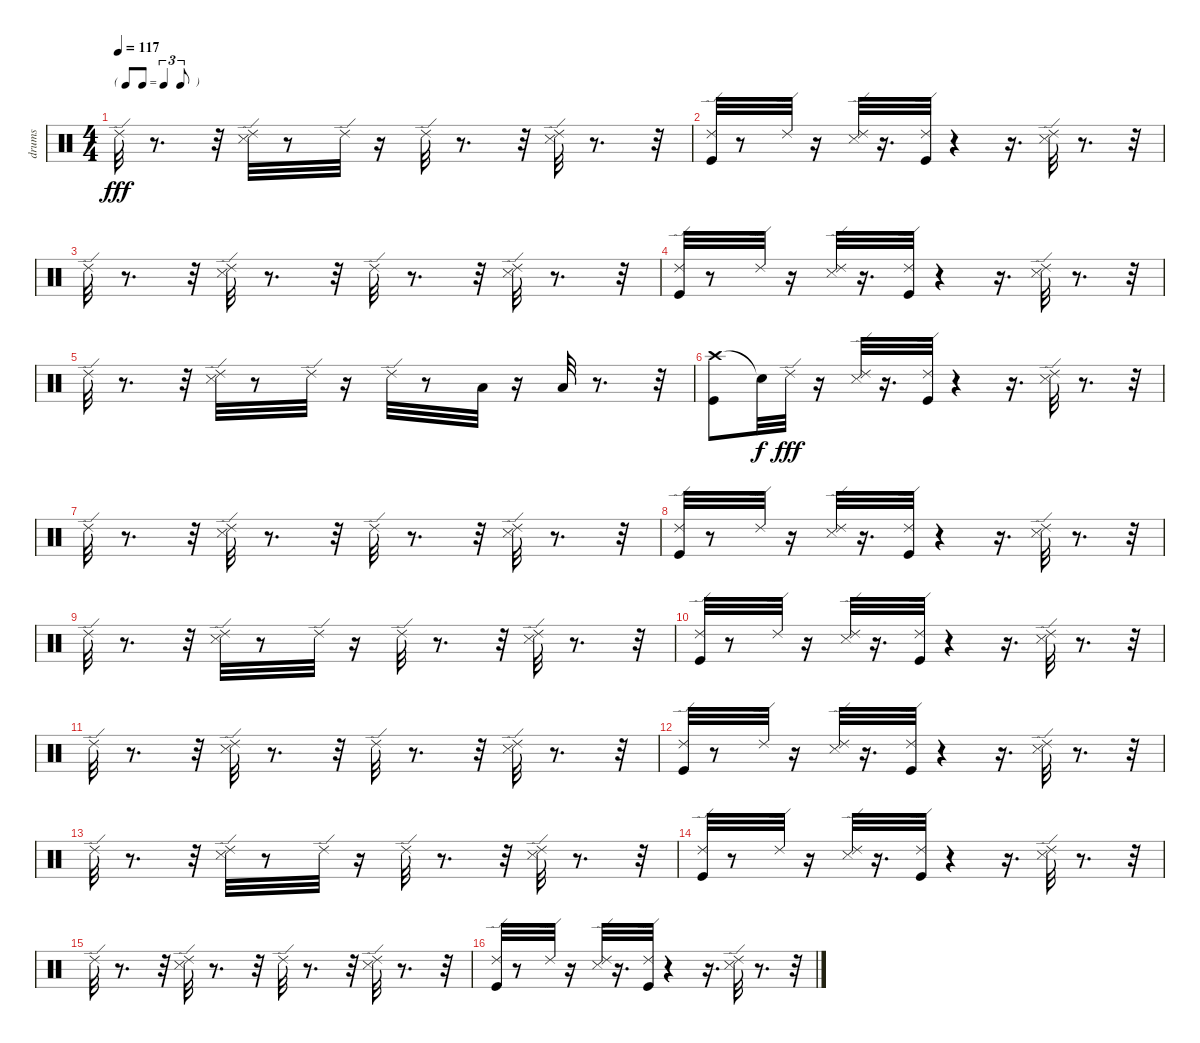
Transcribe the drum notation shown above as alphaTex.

\track ("drums" "drums") {instrument percussion}
\staff {score}
\articulation defaults
\ts (4 4)
\tf triplet8th
\tempo 117
\clef neutral
\ks c "Ride (edge) 2".32{dy fff}
r.8{d} r.32 ("Snare (side stick) 3" "Ride (edge) 2").32 r.8 "Ride (edge) 2".32 r.16 "Ride (edge) 2".32 r.8{d} r.32 ("Snare (side stick) 3" "Ride (edge) 2").32 r.8{d} r.32 |
("Kick (hit)" "Ride (edge) 2").32 r.8 "Ride (edge) 2".32 r.16 ("Snare (side stick) 3" "Ride (edge) 2").32 r.16{d} ("Kick (hit)" "Ride (edge) 2").32 r.4 r.16{d} ("Snare (side stick) 3" "Ride (edge) 2").32 r.8{d} r.32 |
"Ride (edge) 2".32 r.8{d} r.32 ("Snare (side stick) 3" "Ride (edge) 2").32 r.8{d} r.32 "Ride (edge) 2".32 r.8{d} r.32 ("Snare (side stick) 3" "Ride (edge) 2").32 r.8{d} r.32 |
("Kick (hit)" "Ride (edge) 2").32 r.8 "Ride (edge) 2".32 r.16 ("Snare (side stick) 3" "Ride (edge) 2").32 r.16{d} ("Kick (hit)" "Ride (edge) 2").32 r.4 r.16{d} ("Snare (side stick) 3" "Ride (edge) 2").32 r.8{d} r.32 |
"Ride (edge) 2".32 r.8{d} r.32 ("Snare (side stick) 3" "Ride (edge) 2").32 r.8 "Ride (edge) 2".32 r.16 "Ride (edge) 2".32 r.8 "Low Floor Tom (hit)".32 r.16 "Low Floor Tom (hit)".32 r.8{d} r.32 |
("Crash high (hit)" "Kick (hit)").8 "Snare (hit)"{t}.32{dy f} "Ride (edge) 2".32{dy fff} r.16 ("Snare (side stick) 3" "Ride (edge) 2").32 r.16{d} ("Kick (hit)" "Ride (edge) 2").32 r.4 r.16{d} ("Snare (side stick) 3" "Ride (edge) 2").32 r.8{d} r.32 |
"Ride (edge) 2".32 r.8{d} r.32 ("Snare (side stick) 3" "Ride (edge) 2").32 r.8{d} r.32 "Ride (edge) 2".32 r.8{d} r.32 ("Snare (side stick) 3" "Ride (edge) 2").32 r.8{d} r.32 |
("Kick (hit)" "Ride (edge) 2").32 r.8 "Ride (edge) 2".32 r.16 ("Snare (side stick) 3" "Ride (edge) 2").32 r.16{d} ("Kick (hit)" "Ride (edge) 2").32 r.4 r.16{d} ("Snare (side stick) 3" "Ride (edge) 2").32 r.8{d} r.32 |
"Ride (edge) 2".32 r.8{d} r.32 ("Snare (side stick) 3" "Ride (edge) 2").32 r.8 "Ride (edge) 2".32 r.16 "Ride (edge) 2".32 r.8{d} r.32 ("Snare (side stick) 3" "Ride (edge) 2").32 r.8{d} r.32 |
("Kick (hit)" "Ride (edge) 2").32 r.8 "Ride (edge) 2".32 r.16 ("Snare (side stick) 3" "Ride (edge) 2").32 r.16{d} ("Kick (hit)" "Ride (edge) 2").32 r.4 r.16{d} ("Snare (side stick) 3" "Ride (edge) 2").32 r.8{d} r.32 |
"Ride (edge) 2".32 r.8{d} r.32 ("Snare (side stick) 3" "Ride (edge) 2").32 r.8{d} r.32 "Ride (edge) 2".32 r.8{d} r.32 ("Snare (side stick) 3" "Ride (edge) 2").32 r.8{d} r.32 |
("Kick (hit)" "Ride (edge) 2").32 r.8 "Ride (edge) 2".32 r.16 ("Snare (side stick) 3" "Ride (edge) 2").32 r.16{d} ("Kick (hit)" "Ride (edge) 2").32 r.4 r.16{d} ("Snare (side stick) 3" "Ride (edge) 2").32 r.8{d} r.32 |
"Ride (edge) 2".32 r.8{d} r.32 ("Snare (side stick) 3" "Ride (edge) 2").32 r.8 "Ride (edge) 2".32 r.16 "Ride (edge) 2".32 r.8{d} r.32 ("Snare (side stick) 3" "Ride (edge) 2").32 r.8{d} r.32 |
("Kick (hit)" "Ride (edge) 2").32 r.8 "Ride (edge) 2".32 r.16 ("Snare (side stick) 3" "Ride (edge) 2").32 r.16{d} ("Kick (hit)" "Ride (edge) 2").32 r.4 r.16{d} ("Snare (side stick) 3" "Ride (edge) 2").32 r.8{d} r.32 |
"Ride (edge) 2".32 r.8{d} r.32 ("Snare (side stick) 3" "Ride (edge) 2").32 r.8{d} r.32 "Ride (edge) 2".32 r.8{d} r.32 ("Snare (side stick) 3" "Ride (edge) 2").32 r.8{d} r.32 |
("Kick (hit)" "Ride (edge) 2").32 r.8 "Ride (edge) 2".32 r.16 ("Snare (side stick) 3" "Ride (edge) 2").32 r.16{d} ("Kick (hit)" "Ride (edge) 2").32 r.4 r.16{d} ("Snare (side stick) 3" "Ride (edge) 2").32 r.8{d} r.32
